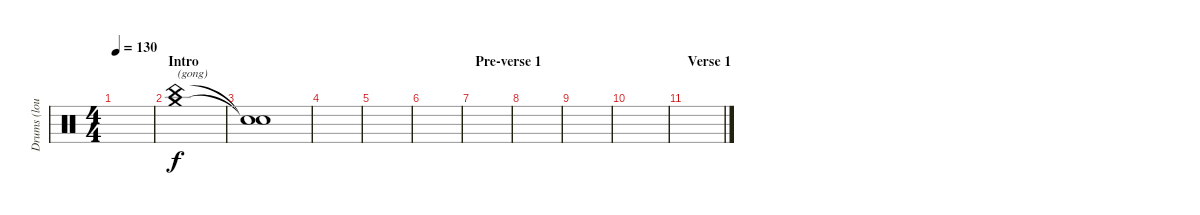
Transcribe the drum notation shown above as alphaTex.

\track ("Drums (loud!)" "Drums (lou") {instrument percussion}
\staff {score}
\articulation defaults
\ts (4 4)
\tempo 130
\clef neutral
\ks c
|
\section ("" "Intro")
("China (hit)" "Crash medium (hit)").1{txt "(gong)"} |
("Snare (hit)"{t} "Snare (hit)"{t}).1{dy f} |
|
|
|
\section ("" "Pre-verse 1")
|
|
|
|
\section ("" "Verse 1")
